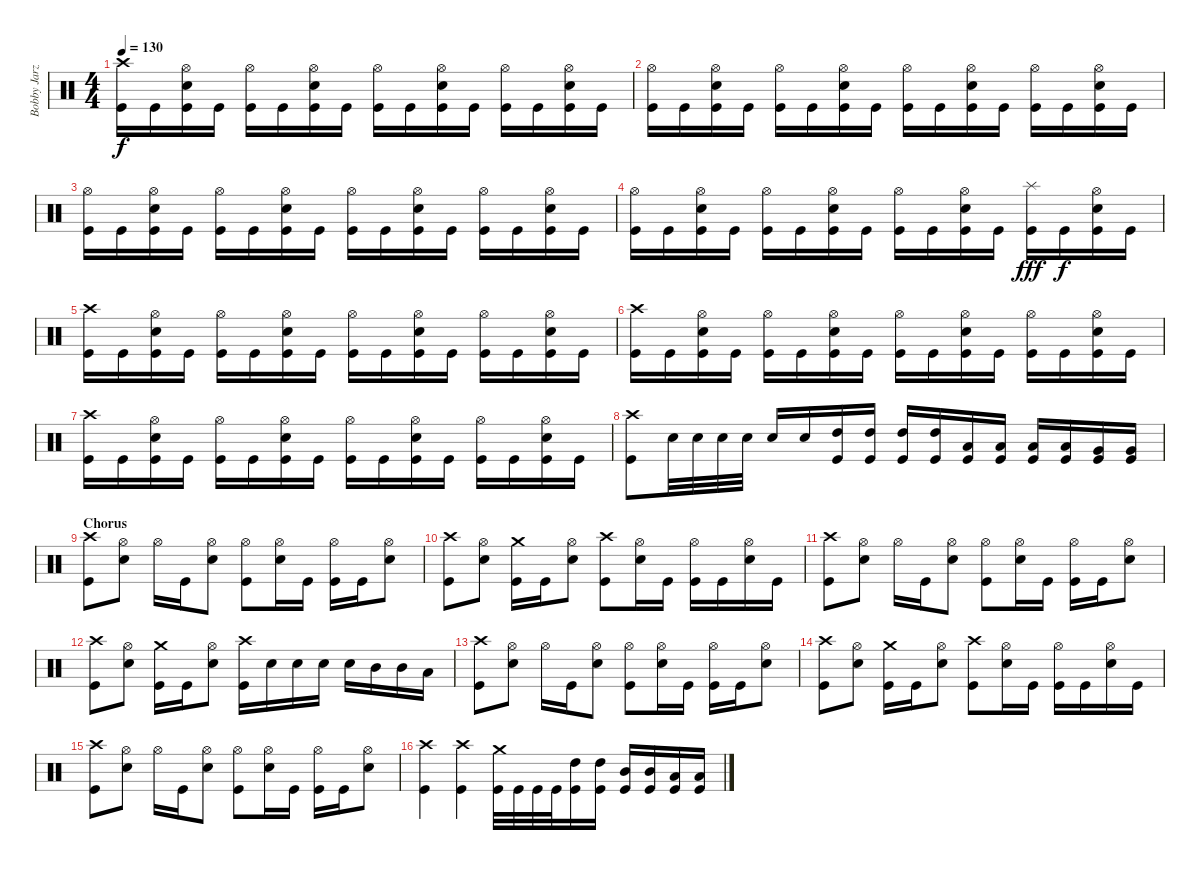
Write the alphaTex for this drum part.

\track ("Bobby Jarzombek" "Bobby Jarz") {instrument percussion}
\staff {score}
\articulation defaults
\ts (4 4)
\tempo 130
\clef neutral
\ks c
("Crash high (hit)" "Kick (hit)").16{dy f} "Kick (hit)".16 ("Hi-Hat (open)" "Electric Snare (hit)" "Kick (hit)").16 "Kick (hit)".16 ("Hi-Hat (open)" "Kick (hit)").16 "Kick (hit)".16 ("Hi-Hat (open)" "Electric Snare (hit)" "Kick (hit)").16 "Kick (hit)".16 ("Hi-Hat (open)" "Kick (hit)").16 "Kick (hit)".16 ("Hi-Hat (open)" "Electric Snare (hit)" "Kick (hit)").16 "Kick (hit)".16 ("Hi-Hat (open)" "Kick (hit)").16 "Kick (hit)".16 ("Hi-Hat (open)" "Electric Snare (hit)" "Kick (hit)").16 "Kick (hit)".16 |
("Hi-Hat (open)" "Kick (hit)").16 "Kick (hit)".16 ("Hi-Hat (open)" "Electric Snare (hit)" "Kick (hit)").16 "Kick (hit)".16 ("Hi-Hat (open)" "Kick (hit)").16 "Kick (hit)".16 ("Hi-Hat (open)" "Electric Snare (hit)" "Kick (hit)").16 "Kick (hit)".16 ("Hi-Hat (open)" "Kick (hit)").16 "Kick (hit)".16 ("Hi-Hat (open)" "Electric Snare (hit)" "Kick (hit)").16 "Kick (hit)".16 ("Hi-Hat (open)" "Kick (hit)").16 "Kick (hit)".16 ("Hi-Hat (open)" "Electric Snare (hit)" "Kick (hit)").16 "Kick (hit)".16 |
("Hi-Hat (open)" "Kick (hit)").16 "Kick (hit)".16 ("Hi-Hat (open)" "Electric Snare (hit)" "Kick (hit)").16 "Kick (hit)".16 ("Hi-Hat (open)" "Kick (hit)").16 "Kick (hit)".16 ("Hi-Hat (open)" "Electric Snare (hit)" "Kick (hit)").16 "Kick (hit)".16 ("Hi-Hat (open)" "Kick (hit)").16 "Kick (hit)".16 ("Hi-Hat (open)" "Electric Snare (hit)" "Kick (hit)").16 "Kick (hit)".16 ("Hi-Hat (open)" "Kick (hit)").16 "Kick (hit)".16 ("Hi-Hat (open)" "Electric Snare (hit)" "Kick (hit)").16 "Kick (hit)".16 |
("Hi-Hat (open)" "Kick (hit)").16 "Kick (hit)".16 ("Hi-Hat (open)" "Electric Snare (hit)" "Kick (hit)").16 "Kick (hit)".16 ("Hi-Hat (open)" "Kick (hit)").16 "Kick (hit)".16 ("Hi-Hat (open)" "Electric Snare (hit)" "Kick (hit)").16 "Kick (hit)".16 ("Hi-Hat (open)" "Kick (hit)").16 "Kick (hit)".16 ("Hi-Hat (open)" "Electric Snare (hit)" "Kick (hit)").16 "Kick (hit)".16 ("Splash (hit)" "Kick (hit)").16{dy fff} "Kick (hit)".16{dy f} ("Hi-Hat (open)" "Electric Snare (hit)" "Kick (hit)").16 "Kick (hit)".16 |
("Crash high (hit)" "Kick (hit)").16 "Kick (hit)".16 ("Hi-Hat (open)" "Electric Snare (hit)" "Kick (hit)").16 "Kick (hit)".16 ("Hi-Hat (open)" "Kick (hit)").16 "Kick (hit)".16 ("Hi-Hat (open)" "Electric Snare (hit)" "Kick (hit)").16 "Kick (hit)".16 ("Hi-Hat (open)" "Kick (hit)").16 "Kick (hit)".16 ("Hi-Hat (open)" "Electric Snare (hit)" "Kick (hit)").16 "Kick (hit)".16 ("Hi-Hat (open)" "Kick (hit)").16 "Kick (hit)".16 ("Hi-Hat (open)" "Electric Snare (hit)" "Kick (hit)").16 "Kick (hit)".16 |
("Crash high (hit)" "Kick (hit)").16 "Kick (hit)".16 ("Hi-Hat (open)" "Electric Snare (hit)" "Kick (hit)").16 "Kick (hit)".16 ("Hi-Hat (open)" "Kick (hit)").16 "Kick (hit)".16 ("Hi-Hat (open)" "Electric Snare (hit)" "Kick (hit)").16 "Kick (hit)".16 ("Hi-Hat (open)" "Kick (hit)").16 "Kick (hit)".16 ("Hi-Hat (open)" "Electric Snare (hit)" "Kick (hit)").16 "Kick (hit)".16 ("Hi-Hat (open)" "Kick (hit)").16 "Kick (hit)".16 ("Hi-Hat (open)" "Electric Snare (hit)" "Kick (hit)").16 "Kick (hit)".16 |
("Crash high (hit)" "Kick (hit)").16 "Kick (hit)".16 ("Hi-Hat (open)" "Electric Snare (hit)" "Kick (hit)").16 "Kick (hit)".16 ("Hi-Hat (open)" "Kick (hit)").16 "Kick (hit)".16 ("Hi-Hat (open)" "Electric Snare (hit)" "Kick (hit)").16 "Kick (hit)".16 ("Hi-Hat (open)" "Kick (hit)").16 "Kick (hit)".16 ("Hi-Hat (open)" "Electric Snare (hit)" "Kick (hit)").16 "Kick (hit)".16 ("Hi-Hat (open)" "Kick (hit)").16 "Kick (hit)".16 ("Hi-Hat (open)" "Electric Snare (hit)" "Kick (hit)").16 "Kick (hit)".16 |
("Crash high (hit)" "Kick (hit)").8 "Electric Snare (hit)".32 "Electric Snare (hit)".32 "Electric Snare (hit)".32 "Electric Snare (hit)".32 "Electric Snare (hit)".16 "Electric Snare (hit)".16 ("High Tom (hit)" "Kick (hit)").16 ("High Tom (hit)" "Kick (hit)").16 ("High Tom (hit)" "Kick (hit)").16 ("High Tom (hit)" "Kick (hit)").16 ("Low Tom (hit)" "Kick (hit)").16 ("Low Tom (hit)" "Kick (hit)").16 ("Low Tom (hit)" "Kick (hit)").16 ("Low Tom (hit)" "Kick (hit)").16 ("Very Low Tom (hit)" "Kick (hit)").16 ("Very Low Tom (hit)" "Kick (hit)").16 |
\section ("" "Chorus")
("Crash high (hit)" "Kick (hit)").8 ("Hi-Hat (open)" "Electric Snare (hit)").8 "Hi-Hat (open)".16 "Kick (hit)".16 ("Hi-Hat (open)" "Electric Snare (hit)").8 ("Hi-Hat (open)" "Kick (hit)").8 ("Hi-Hat (open)" "Electric Snare (hit)").16 "Kick (hit)".16 ("Hi-Hat (open)" "Kick (hit)").16 "Kick (hit)".16 ("Hi-Hat (open)" "Electric Snare (hit)").8 |
("Crash high (hit)" "Kick (hit)").8 ("Hi-Hat (open)" "Electric Snare (hit)").8 ("Crash medium (hit)" "Kick (hit)").16 "Kick (hit)".16 ("Hi-Hat (open)" "Electric Snare (hit)").8 ("Crash high (hit)" "Kick (hit)").8 ("Hi-Hat (open)" "Electric Snare (hit)").16 "Kick (hit)".16 ("Hi-Hat (open)" "Kick (hit)").16 "Kick (hit)".16 ("Hi-Hat (open)" "Electric Snare (hit)").16 "Kick (hit)".16 |
("Crash high (hit)" "Kick (hit)").8 ("Hi-Hat (open)" "Electric Snare (hit)").8 "Hi-Hat (open)".16 "Kick (hit)".16 ("Hi-Hat (open)" "Electric Snare (hit)").8 ("Hi-Hat (open)" "Kick (hit)").8 ("Hi-Hat (open)" "Electric Snare (hit)").16 "Kick (hit)".16 ("Hi-Hat (open)" "Kick (hit)").16 "Kick (hit)".16 ("Hi-Hat (open)" "Electric Snare (hit)").8 |
("Crash high (hit)" "Kick (hit)").8 ("Hi-Hat (open)" "Electric Snare (hit)").8 ("Crash medium (hit)" "Kick (hit)").16 "Kick (hit)".16 ("Hi-Hat (open)" "Electric Snare (hit)").8 ("Crash high (hit)" "Kick (hit)").16 "Electric Snare (hit)".16 "Electric Snare (hit)".16 "Electric Snare (hit)".16 "Electric Snare (hit)".16 "Mid Tom (hit)".16 "Mid Tom (hit)".16 "Low Tom (hit)".16 |
("Crash high (hit)" "Kick (hit)").8 ("Hi-Hat (open)" "Electric Snare (hit)").8 "Hi-Hat (open)".16 "Kick (hit)".16 ("Hi-Hat (open)" "Electric Snare (hit)").8 ("Hi-Hat (open)" "Kick (hit)").8 ("Hi-Hat (open)" "Electric Snare (hit)").16 "Kick (hit)".16 ("Hi-Hat (open)" "Kick (hit)").16 "Kick (hit)".16 ("Hi-Hat (open)" "Electric Snare (hit)").8 |
("Crash high (hit)" "Kick (hit)").8 ("Hi-Hat (open)" "Electric Snare (hit)").8 ("Crash medium (hit)" "Kick (hit)").16 "Kick (hit)".16 ("Hi-Hat (open)" "Electric Snare (hit)").8 ("Crash high (hit)" "Kick (hit)").8 ("Hi-Hat (open)" "Electric Snare (hit)").16 "Kick (hit)".16 ("Hi-Hat (open)" "Kick (hit)").16 "Kick (hit)".16 ("Hi-Hat (open)" "Electric Snare (hit)").16 "Kick (hit)".16 |
("Crash high (hit)" "Kick (hit)").8 ("Hi-Hat (open)" "Electric Snare (hit)").8 "Hi-Hat (open)".16 "Kick (hit)".16 ("Hi-Hat (open)" "Electric Snare (hit)").8 ("Hi-Hat (open)" "Kick (hit)").8 ("Hi-Hat (open)" "Electric Snare (hit)").16 "Kick (hit)".16 ("Hi-Hat (open)" "Kick (hit)").16 "Kick (hit)".16 ("Hi-Hat (open)" "Electric Snare (hit)").8 |
("Crash high (hit)" "Kick (hit)").4 ("Crash high (hit)" "Kick (hit)").4 ("Crash medium (hit)" "Kick (hit)").32 "Kick (hit)".32 "Kick (hit)".32 "Kick (hit)".32 ("High Tom (hit)" "Kick (hit)").16 ("High Tom (hit)" "Kick (hit)").16 ("Mid Tom (hit)" "Kick (hit)").16 ("Mid Tom (hit)" "Kick (hit)").16 ("Low Tom (hit)" "Kick (hit)").16 ("Low Tom (hit)" "Kick (hit)").16
